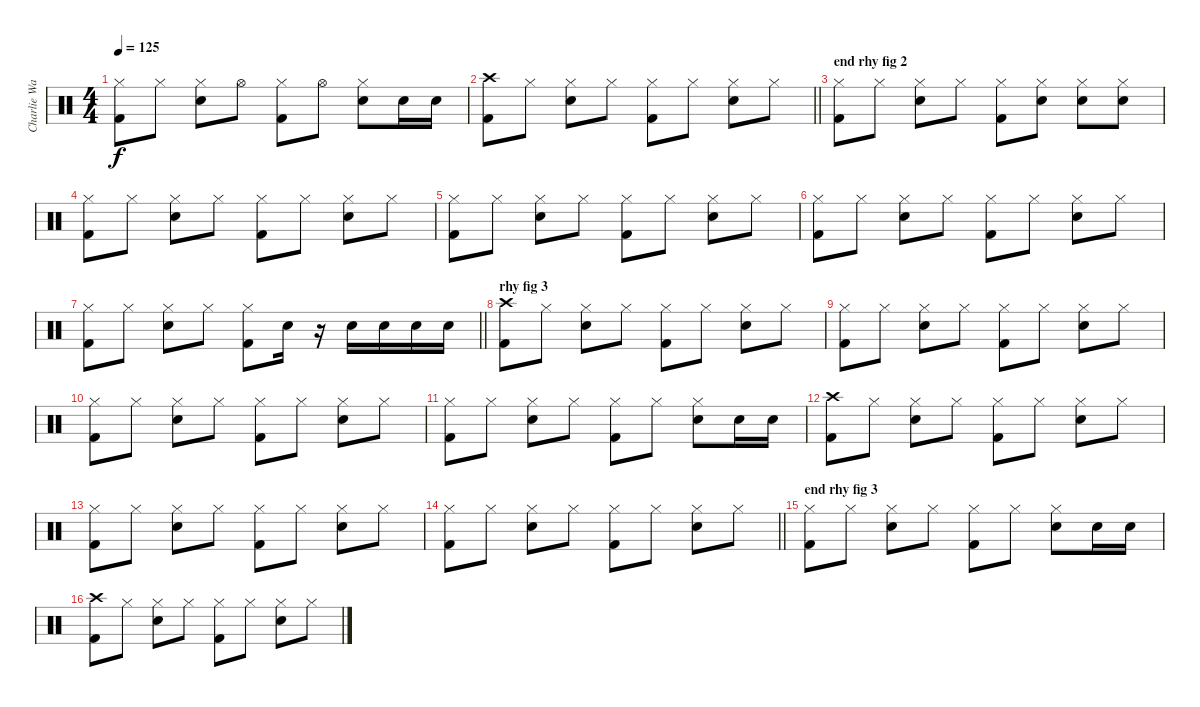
\track ("Charlie Watson" "Charlie Wa") {instrument percussion}
\staff {score}
\articulation defaults
\ts (4 4)
\tempo 125
\clef neutral
\ks c
("Hi-Hat (closed)" "Kick (hit) 2").8{dy f} "Hi-Hat (closed)".8 ("Hi-Hat (closed)" "Snare (hit) 2").8 "Hi-Hat (open)".8 ("Hi-Hat (closed)" "Kick (hit) 2").8 "Hi-Hat (open)".8 ("Hi-Hat (closed)" "Snare (hit) 2").8 "Snare (hit) 2".16 "Snare (hit) 2".16 |
\barLineRight lightlight
("Crash high (hit)" "Kick (hit) 2").8 "Hi-Hat (closed)".8 ("Hi-Hat (closed)" "Snare (hit) 2").8 "Hi-Hat (closed)".8 ("Hi-Hat (closed)" "Kick (hit) 2").8 "Hi-Hat (closed)".8 ("Hi-Hat (closed)" "Snare (hit) 2").8 "Hi-Hat (closed)".8 |
\section ("" "end rhy fig 2")
("Hi-Hat (closed)" "Kick (hit) 2").8 "Hi-Hat (closed)".8 ("Hi-Hat (closed)" "Snare (hit) 2").8 "Hi-Hat (closed)".8 ("Hi-Hat (closed)" "Kick (hit) 2").8 ("Hi-Hat (closed)" "Snare (hit) 2").8 ("Hi-Hat (closed)" "Snare (hit) 2").8 ("Hi-Hat (closed)" "Snare (hit) 2").8 |
("Hi-Hat (closed)" "Kick (hit) 2").8 "Hi-Hat (closed)".8 ("Hi-Hat (closed)" "Snare (hit) 2").8 "Hi-Hat (closed)".8 ("Hi-Hat (closed)" "Kick (hit) 2").8 "Hi-Hat (closed)".8 ("Hi-Hat (closed)" "Snare (hit) 2").8 "Hi-Hat (closed)".8 |
("Hi-Hat (closed)" "Kick (hit) 2").8 "Hi-Hat (closed)".8 ("Hi-Hat (closed)" "Snare (hit) 2").8 "Hi-Hat (closed)".8 ("Hi-Hat (closed)" "Kick (hit) 2").8 "Hi-Hat (closed)".8 ("Hi-Hat (closed)" "Snare (hit) 2").8 "Hi-Hat (closed)".8 |
("Hi-Hat (closed)" "Kick (hit) 2").8 "Hi-Hat (closed)".8 ("Hi-Hat (closed)" "Snare (hit) 2").8 "Hi-Hat (closed)".8 ("Hi-Hat (closed)" "Kick (hit) 2").8 "Hi-Hat (closed)".8 ("Hi-Hat (closed)" "Snare (hit) 2").8 "Hi-Hat (closed)".8 |
\barLineRight lightlight
("Hi-Hat (closed)" "Kick (hit) 2").8 "Hi-Hat (closed)".8 ("Hi-Hat (closed)" "Snare (hit) 2").8 "Hi-Hat (closed)".8 ("Hi-Hat (closed)" "Kick (hit) 2").8 "Snare (hit) 2".16 r.16 "Snare (hit) 2".16 "Snare (hit) 2".16 "Snare (hit) 2".16 "Snare (hit) 2".16 |
\section ("" "rhy fig 3")
("Crash high (hit)" "Kick (hit) 2").8 "Hi-Hat (closed)".8 ("Hi-Hat (closed)" "Snare (hit) 2").8 "Hi-Hat (closed)".8 ("Hi-Hat (closed)" "Kick (hit) 2").8 "Hi-Hat (closed)".8 ("Hi-Hat (closed)" "Snare (hit) 2").8 "Hi-Hat (closed)".8 |
("Hi-Hat (closed)" "Kick (hit) 2").8 "Hi-Hat (closed)".8 ("Hi-Hat (closed)" "Snare (hit) 2").8 "Hi-Hat (closed)".8 ("Hi-Hat (closed)" "Kick (hit) 2").8 "Hi-Hat (closed)".8 ("Hi-Hat (closed)" "Snare (hit) 2").8 "Hi-Hat (closed)".8 |
("Hi-Hat (closed)" "Kick (hit) 2").8 "Hi-Hat (closed)".8 ("Hi-Hat (closed)" "Snare (hit) 2").8 "Hi-Hat (closed)".8 ("Hi-Hat (closed)" "Kick (hit) 2").8 "Hi-Hat (closed)".8 ("Hi-Hat (closed)" "Snare (hit) 2").8 "Hi-Hat (closed)".8 |
("Hi-Hat (closed)" "Kick (hit) 2").8 "Hi-Hat (closed)".8 ("Hi-Hat (closed)" "Snare (hit) 2").8 "Hi-Hat (closed)".8 ("Hi-Hat (closed)" "Kick (hit) 2").8 "Hi-Hat (closed)".8 ("Hi-Hat (closed)" "Snare (hit) 2").8 "Snare (hit) 2".16 "Snare (hit) 2".16 |
("Crash high (hit)" "Kick (hit) 2").8 "Hi-Hat (closed)".8 ("Hi-Hat (closed)" "Snare (hit) 2").8 "Hi-Hat (closed)".8 ("Hi-Hat (closed)" "Kick (hit) 2").8 "Hi-Hat (closed)".8 ("Hi-Hat (closed)" "Snare (hit) 2").8 "Hi-Hat (closed)".8 |
("Hi-Hat (closed)" "Kick (hit) 2").8 "Hi-Hat (closed)".8 ("Hi-Hat (closed)" "Snare (hit) 2").8 "Hi-Hat (closed)".8 ("Hi-Hat (closed)" "Kick (hit) 2").8 "Hi-Hat (closed)".8 ("Hi-Hat (closed)" "Snare (hit) 2").8 "Hi-Hat (closed)".8 |
\barLineRight lightlight
("Hi-Hat (closed)" "Kick (hit) 2").8 "Hi-Hat (closed)".8 ("Hi-Hat (closed)" "Snare (hit) 2").8 "Hi-Hat (closed)".8 ("Hi-Hat (closed)" "Kick (hit) 2").8 "Hi-Hat (closed)".8 ("Hi-Hat (closed)" "Snare (hit) 2").8 "Hi-Hat (closed)".8 |
\section ("" "end rhy fig 3")
("Hi-Hat (closed)" "Kick (hit) 2").8 "Hi-Hat (closed)".8 ("Hi-Hat (closed)" "Snare (hit) 2").8 "Hi-Hat (closed)".8 ("Hi-Hat (closed)" "Kick (hit) 2").8 "Hi-Hat (closed)".8 ("Hi-Hat (closed)" "Snare (hit) 2").8 "Snare (hit) 2".16 "Snare (hit) 2".16 |
("Crash high (hit)" "Kick (hit) 2").8 "Hi-Hat (closed)".8 ("Hi-Hat (closed)" "Snare (hit) 2").8 "Hi-Hat (closed)".8 ("Hi-Hat (closed)" "Kick (hit) 2").8 "Hi-Hat (closed)".8 ("Hi-Hat (closed)" "Snare (hit) 2").8 "Hi-Hat (closed)".8
